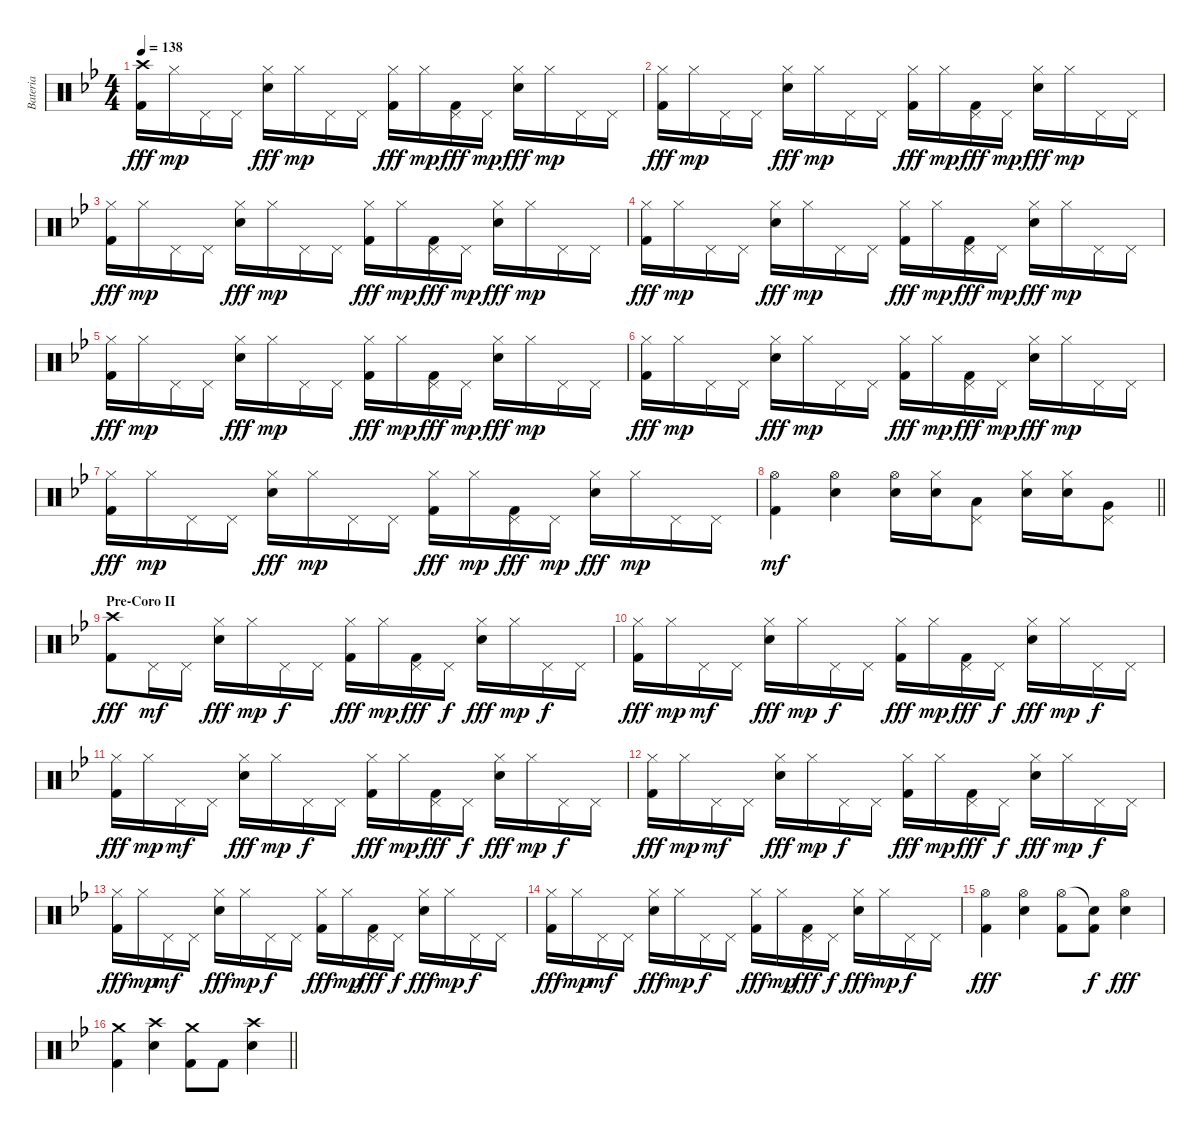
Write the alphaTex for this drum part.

\track ("Bateria" "Bateria") {instrument percussion}
\staff {score}
\articulation defaults
\ts (4 4)
\tempo 138
\clef neutral
\ks bb
("Crash high (hit)" "Kick (hit) 2").16{dy fff} "Hi-Hat (closed)".16{dy mp} "Pedal Hi-Hat (hit)".16 "Pedal Hi-Hat (hit)".16 ("Hi-Hat (closed)" "Snare (hit) 2").16{dy fff} "Hi-Hat (closed)".16{dy mp} "Pedal Hi-Hat (hit)".16 "Pedal Hi-Hat (hit)".16 ("Hi-Hat (closed)" "Kick (hit) 2").16{dy fff} "Hi-Hat (closed)".16{dy mp} ("Pedal Hi-Hat (hit)" "Kick (hit) 2").16{dy fff} "Pedal Hi-Hat (hit)".16{dy mp} ("Hi-Hat (closed)" "Snare (hit) 2").16{dy fff} "Hi-Hat (closed)".16{dy mp} "Pedal Hi-Hat (hit)".16 "Pedal Hi-Hat (hit)".16 |
("Hi-Hat (closed)" "Kick (hit) 2").16{dy fff} "Hi-Hat (closed)".16{dy mp} "Pedal Hi-Hat (hit)".16 "Pedal Hi-Hat (hit)".16 ("Hi-Hat (closed)" "Snare (hit) 2").16{dy fff} "Hi-Hat (closed)".16{dy mp} "Pedal Hi-Hat (hit)".16 "Pedal Hi-Hat (hit)".16 ("Hi-Hat (closed)" "Kick (hit) 2").16{dy fff} "Hi-Hat (closed)".16{dy mp} ("Pedal Hi-Hat (hit)" "Kick (hit) 2").16{dy fff} "Pedal Hi-Hat (hit)".16{dy mp} ("Hi-Hat (closed)" "Snare (hit) 2").16{dy fff} "Hi-Hat (closed)".16{dy mp} "Pedal Hi-Hat (hit)".16 "Pedal Hi-Hat (hit)".16 |
("Hi-Hat (closed)" "Kick (hit) 2").16{dy fff} "Hi-Hat (closed)".16{dy mp} "Pedal Hi-Hat (hit)".16 "Pedal Hi-Hat (hit)".16 ("Hi-Hat (closed)" "Snare (hit) 2").16{dy fff} "Hi-Hat (closed)".16{dy mp} "Pedal Hi-Hat (hit)".16 "Pedal Hi-Hat (hit)".16 ("Hi-Hat (closed)" "Kick (hit) 2").16{dy fff} "Hi-Hat (closed)".16{dy mp} ("Pedal Hi-Hat (hit)" "Kick (hit) 2").16{dy fff} "Pedal Hi-Hat (hit)".16{dy mp} ("Hi-Hat (closed)" "Snare (hit) 2").16{dy fff} "Hi-Hat (closed)".16{dy mp} "Pedal Hi-Hat (hit)".16 "Pedal Hi-Hat (hit)".16 |
("Hi-Hat (closed)" "Kick (hit) 2").16{dy fff} "Hi-Hat (closed)".16{dy mp} "Pedal Hi-Hat (hit)".16 "Pedal Hi-Hat (hit)".16 ("Hi-Hat (closed)" "Snare (hit) 2").16{dy fff} "Hi-Hat (closed)".16{dy mp} "Pedal Hi-Hat (hit)".16 "Pedal Hi-Hat (hit)".16 ("Hi-Hat (closed)" "Kick (hit) 2").16{dy fff} "Hi-Hat (closed)".16{dy mp} ("Pedal Hi-Hat (hit)" "Kick (hit) 2").16{dy fff} "Pedal Hi-Hat (hit)".16{dy mp} ("Hi-Hat (closed)" "Snare (hit) 2").16{dy fff} "Hi-Hat (closed)".16{dy mp} "Pedal Hi-Hat (hit)".16 "Pedal Hi-Hat (hit)".16 |
("Hi-Hat (closed)" "Kick (hit) 2").16{dy fff} "Hi-Hat (closed)".16{dy mp} "Pedal Hi-Hat (hit)".16 "Pedal Hi-Hat (hit)".16 ("Hi-Hat (closed)" "Snare (hit) 2").16{dy fff} "Hi-Hat (closed)".16{dy mp} "Pedal Hi-Hat (hit)".16 "Pedal Hi-Hat (hit)".16 ("Hi-Hat (closed)" "Kick (hit) 2").16{dy fff} "Hi-Hat (closed)".16{dy mp} ("Pedal Hi-Hat (hit)" "Kick (hit) 2").16{dy fff} "Pedal Hi-Hat (hit)".16{dy mp} ("Hi-Hat (closed)" "Snare (hit) 2").16{dy fff} "Hi-Hat (closed)".16{dy mp} "Pedal Hi-Hat (hit)".16 "Pedal Hi-Hat (hit)".16 |
("Hi-Hat (closed)" "Kick (hit) 2").16{dy fff} "Hi-Hat (closed)".16{dy mp} "Pedal Hi-Hat (hit)".16 "Pedal Hi-Hat (hit)".16 ("Hi-Hat (closed)" "Snare (hit) 2").16{dy fff} "Hi-Hat (closed)".16{dy mp} "Pedal Hi-Hat (hit)".16 "Pedal Hi-Hat (hit)".16 ("Hi-Hat (closed)" "Kick (hit) 2").16{dy fff} "Hi-Hat (closed)".16{dy mp} ("Pedal Hi-Hat (hit)" "Kick (hit) 2").16{dy fff} "Pedal Hi-Hat (hit)".16{dy mp} ("Hi-Hat (closed)" "Snare (hit) 2").16{dy fff} "Hi-Hat (closed)".16{dy mp} "Pedal Hi-Hat (hit)".16 "Pedal Hi-Hat (hit)".16 |
("Hi-Hat (closed)" "Kick (hit) 2").16{dy fff} "Hi-Hat (closed)".16{dy mp} "Pedal Hi-Hat (hit)".16 "Pedal Hi-Hat (hit)".16 ("Hi-Hat (closed)" "Snare (hit) 2").16{dy fff} "Hi-Hat (closed)".16{dy mp} "Pedal Hi-Hat (hit)".16 "Pedal Hi-Hat (hit)".16 ("Hi-Hat (closed)" "Kick (hit) 2").16{dy fff} "Hi-Hat (closed)".16{dy mp} ("Pedal Hi-Hat (hit)" "Kick (hit) 2").16{dy fff} "Pedal Hi-Hat (hit)".16{dy mp} ("Hi-Hat (closed)" "Snare (hit) 2").16{dy fff} "Hi-Hat (closed)".16{dy mp} "Pedal Hi-Hat (hit)".16 "Pedal Hi-Hat (hit)".16 |
\barLineRight lightlight
("Hi-Hat (open)" "Kick (hit) 2").4{dy mf} ("Hi-Hat (open)" "Electric Snare (hit)").4 ("Hi-Hat (open)" "Electric Snare (hit)").16 ("Hi-Hat (closed)" "Snare (hit) 2").16 ("Pedal Hi-Hat (hit)" "Low Tom (hit)").8 ("Hi-Hat (closed)" "Electric Snare (hit)").16 ("Hi-Hat (closed)" "Snare (hit) 2").16 ("Pedal Hi-Hat (hit)" "Very Low Tom (hit)").8 |
\section ("" "Pre-Coro II")
("Crash high (hit)" "Kick (hit) 2").8{dy fff} "Pedal Hi-Hat (hit)".16{dy mf} "Pedal Hi-Hat (hit)".16 ("Hi-Hat (closed)" "Snare (hit) 2").16{dy fff} "Hi-Hat (closed)".16{dy mp} "Pedal Hi-Hat (hit)".16{dy f} "Pedal Hi-Hat (hit)".16 ("Hi-Hat (closed)" "Kick (hit) 2").16{dy fff} "Hi-Hat (closed)".16{dy mp} ("Pedal Hi-Hat (hit)" "Kick (hit) 2").16{dy fff} "Pedal Hi-Hat (hit)".16{dy f} ("Hi-Hat (closed)" "Snare (hit) 2").16{dy fff} "Hi-Hat (closed)".16{dy mp} "Pedal Hi-Hat (hit)".16{dy f} "Pedal Hi-Hat (hit)".16 |
("Hi-Hat (closed)" "Kick (hit) 2").16{dy fff} "Hi-Hat (closed)".16{dy mp} "Pedal Hi-Hat (hit)".16{dy mf} "Pedal Hi-Hat (hit)".16 ("Hi-Hat (closed)" "Snare (hit) 2").16{dy fff} "Hi-Hat (closed)".16{dy mp} "Pedal Hi-Hat (hit)".16{dy f} "Pedal Hi-Hat (hit)".16 ("Hi-Hat (closed)" "Kick (hit) 2").16{dy fff} "Hi-Hat (closed)".16{dy mp} ("Pedal Hi-Hat (hit)" "Kick (hit) 2").16{dy fff} "Pedal Hi-Hat (hit)".16{dy f} ("Hi-Hat (closed)" "Snare (hit) 2").16{dy fff} "Hi-Hat (closed)".16{dy mp} "Pedal Hi-Hat (hit)".16{dy f} "Pedal Hi-Hat (hit)".16 |
("Hi-Hat (closed)" "Kick (hit) 2").16{dy fff} "Hi-Hat (closed)".16{dy mp} "Pedal Hi-Hat (hit)".16{dy mf} "Pedal Hi-Hat (hit)".16 ("Hi-Hat (closed)" "Snare (hit) 2").16{dy fff} "Hi-Hat (closed)".16{dy mp} "Pedal Hi-Hat (hit)".16{dy f} "Pedal Hi-Hat (hit)".16 ("Hi-Hat (closed)" "Kick (hit) 2").16{dy fff} "Hi-Hat (closed)".16{dy mp} ("Pedal Hi-Hat (hit)" "Kick (hit) 2").16{dy fff} "Pedal Hi-Hat (hit)".16{dy f} ("Hi-Hat (closed)" "Snare (hit) 2").16{dy fff} "Hi-Hat (closed)".16{dy mp} "Pedal Hi-Hat (hit)".16{dy f} "Pedal Hi-Hat (hit)".16 |
("Hi-Hat (closed)" "Kick (hit) 2").16{dy fff} "Hi-Hat (closed)".16{dy mp} "Pedal Hi-Hat (hit)".16{dy mf} "Pedal Hi-Hat (hit)".16 ("Hi-Hat (closed)" "Snare (hit) 2").16{dy fff} "Hi-Hat (closed)".16{dy mp} "Pedal Hi-Hat (hit)".16{dy f} "Pedal Hi-Hat (hit)".16 ("Hi-Hat (closed)" "Kick (hit) 2").16{dy fff} "Hi-Hat (closed)".16{dy mp} ("Pedal Hi-Hat (hit)" "Kick (hit) 2").16{dy fff} "Pedal Hi-Hat (hit)".16{dy f} ("Hi-Hat (closed)" "Snare (hit) 2").16{dy fff} "Hi-Hat (closed)".16{dy mp} "Pedal Hi-Hat (hit)".16{dy f} "Pedal Hi-Hat (hit)".16 |
("Hi-Hat (closed)" "Kick (hit) 2").16{dy fff} "Hi-Hat (closed)".16{dy mp} "Pedal Hi-Hat (hit)".16{dy mf} "Pedal Hi-Hat (hit)".16 ("Hi-Hat (closed)" "Snare (hit) 2").16{dy fff} "Hi-Hat (closed)".16{dy mp} "Pedal Hi-Hat (hit)".16{dy f} "Pedal Hi-Hat (hit)".16 ("Hi-Hat (closed)" "Kick (hit) 2").16{dy fff} "Hi-Hat (closed)".16{dy mp} ("Pedal Hi-Hat (hit)" "Kick (hit) 2").16{dy fff} "Pedal Hi-Hat (hit)".16{dy f} ("Hi-Hat (closed)" "Snare (hit) 2").16{dy fff} "Hi-Hat (closed)".16{dy mp} "Pedal Hi-Hat (hit)".16{dy f} "Pedal Hi-Hat (hit)".16 |
("Hi-Hat (closed)" "Kick (hit) 2").16{dy fff} "Hi-Hat (closed)".16{dy mp} "Pedal Hi-Hat (hit)".16{dy mf} "Pedal Hi-Hat (hit)".16 ("Hi-Hat (closed)" "Snare (hit) 2").16{dy fff} "Hi-Hat (closed)".16{dy mp} "Pedal Hi-Hat (hit)".16{dy f} "Pedal Hi-Hat (hit)".16 ("Hi-Hat (closed)" "Kick (hit) 2").16{dy fff} "Hi-Hat (closed)".16{dy mp} ("Pedal Hi-Hat (hit)" "Kick (hit) 2").16{dy fff} "Pedal Hi-Hat (hit)".16{dy f} ("Hi-Hat (closed)" "Snare (hit) 2").16{dy fff} "Hi-Hat (closed)".16{dy mp} "Pedal Hi-Hat (hit)".16{dy f} "Pedal Hi-Hat (hit)".16 |
("Hi-Hat (open)" "Kick (hit) 2").4{dy fff} ("Hi-Hat (open)" "Snare (hit) 2").4 ("Hi-Hat (open)" "Kick (hit) 2").8 ("Snare (hit)"{t} "Kick (hit) 2").8{dy f} ("Hi-Hat (open)" "Snare (hit) 2").4{dy fff} |
\barLineRight lightlight
("Crash medium (hit)" "Kick (hit) 2").4 ("Crash high (hit)" "Snare (hit) 2").4 ("Crash medium (hit)" "Kick (hit) 2").8 "Kick (hit) 2".8 ("Crash high (hit)" "Snare (hit) 2").4
